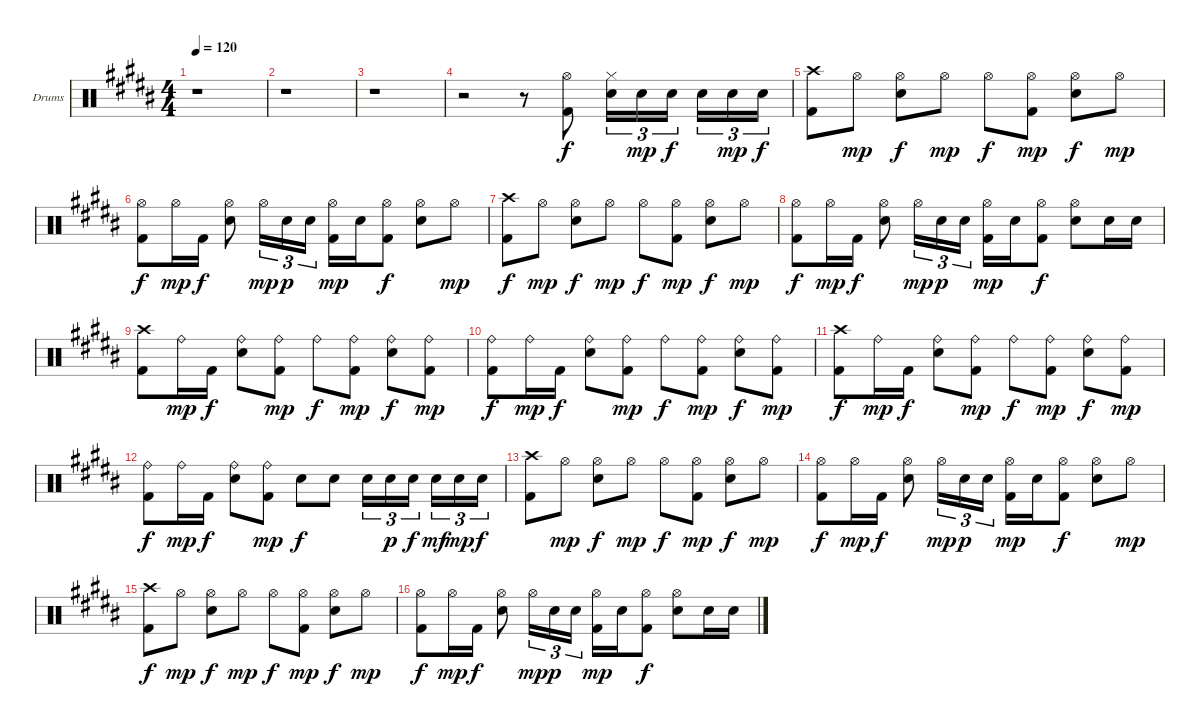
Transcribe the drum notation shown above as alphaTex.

\bracketExtendMode groupsimilarinstruments
\firstSystemTrackNameOrientation horizontal
\otherSystemsTrackNameOrientation horizontal
\track ("Drumkit" "Drums") {instrument percussion}
\staff {score}
\articulation defaults
\ts (4 4)
\beaming (8 2 2 2 2)
\tempo 120
\clef neutral
\ks b
r.1{dy f} |
\ks g#minor
r.1 |
r.1 |
r.2 r.8 ("Hi-Hat (open)"{acc forcenatural} "Kick (hit) 2"{acc forcenatural}).8 ("Hi-Hat (closed)"{acc forcenatural} "Snare (hit) 2"{acc forcenatural}).16{tu (3 2)} "Snare (hit) 2"{acc forcenatural}.16{tu (3 2) dy mp} "Snare (hit) 2"{acc forcenatural}.16{tu (3 2) dy f} "Snare (hit) 2"{acc forcenatural}.16{tu (3 2)} "Snare (hit) 2"{acc forcenatural}.16{tu (3 2) dy mp} "Snare (hit) 2"{acc forcenatural}.16{tu (3 2) dy f} |
("Crash high (hit)"{acc forcenatural} "Kick (hit) 2"{acc forcenatural}).8 "Hi-Hat (open)"{acc forcenatural}.8{dy mp} ("Hi-Hat (open)"{acc forcenatural} "Snare (hit) 2"{acc forcenatural}).8{dy f} "Hi-Hat (open)"{acc forcenatural}.8{dy mp} "Hi-Hat (open)"{acc forcenatural}.8{dy f} ("Hi-Hat (open)"{acc forcenatural} "Kick (hit) 2"{acc forcenatural}).8{dy mp} ("Hi-Hat (open)"{acc forcenatural} "Snare (hit) 2"{acc forcenatural}).8{dy f} "Hi-Hat (open)"{acc forcenatural}.8{dy mp} |
("Hi-Hat (open)"{acc forcenatural} "Kick (hit) 2"{acc forcenatural}).8{dy f} "Hi-Hat (open)"{acc forcenatural}.16{dy mp} "Kick (hit) 2"{acc forcenatural}.16{dy f} ("Hi-Hat (open)"{acc forcenatural} "Snare (hit) 2"{acc forcenatural}).8 "Hi-Hat (open)"{acc forcenatural}.16{tu (3 2) dy mp} "Snare (hit) 2"{acc forcenatural}.16{tu (3 2) dy p} "Snare (hit) 2"{acc forcenatural}.16{tu (3 2)} ("Hi-Hat (open)"{acc forcenatural} "Kick (hit) 2"{acc forcenatural}).16{dy mp} "Snare (hit) 2"{acc forcenatural}.16 ("Hi-Hat (open)"{acc forcenatural} "Kick (hit) 2"{acc forcenatural}).8{dy f} ("Hi-Hat (open)"{acc forcenatural} "Snare (hit) 2"{acc forcenatural}).8 "Hi-Hat (open)"{acc forcenatural}.8{dy mp} |
("Crash high (hit)"{acc forcenatural} "Kick (hit) 2"{acc forcenatural}).8{dy f} "Hi-Hat (open)"{acc forcenatural}.8{dy mp} ("Hi-Hat (open)"{acc forcenatural} "Snare (hit) 2"{acc forcenatural}).8{dy f} "Hi-Hat (open)"{acc forcenatural}.8{dy mp} "Hi-Hat (open)"{acc forcenatural}.8{dy f} ("Hi-Hat (open)"{acc forcenatural} "Kick (hit) 2"{acc forcenatural}).8{dy mp} ("Hi-Hat (open)"{acc forcenatural} "Snare (hit) 2"{acc forcenatural}).8{dy f} "Hi-Hat (open)"{acc forcenatural}.8{dy mp} |
("Hi-Hat (open)"{acc forcenatural} "Kick (hit) 2"{acc forcenatural}).8{dy f} "Hi-Hat (open)"{acc forcenatural}.16{dy mp} "Kick (hit) 2"{acc forcenatural}.16{dy f} ("Hi-Hat (open)"{acc forcenatural} "Snare (hit) 2"{acc forcenatural}).8 "Hi-Hat (open)"{acc forcenatural}.16{tu (3 2) dy mp} "Snare (hit) 2"{acc forcenatural}.16{tu (3 2) dy p} "Snare (hit) 2"{acc forcenatural}.16{tu (3 2)} ("Hi-Hat (open)"{acc forcenatural} "Kick (hit) 2"{acc forcenatural}).16{dy mp} "Snare (hit) 2"{acc forcenatural}.16 ("Hi-Hat (open)"{acc forcenatural} "Kick (hit) 2"{acc forcenatural}).8{dy f} ("Hi-Hat (open)"{acc forcenatural} "Snare (hit) 2"{acc forcenatural}).8 "Snare (hit) 2"{acc forcenatural}.16 "Snare (hit) 2"{acc forcenatural}.16 |
("Crash high (hit)"{acc forcenatural} "Kick (hit) 2"{acc forcenatural}).8 "Ride (bell)"{acc forcenatural}.16{dy mp} "Kick (hit) 2"{acc forcenatural}.16{dy f} ("Ride (bell)"{acc forcenatural} "Snare (hit) 2"{acc forcenatural}).8 ("Ride (bell)"{acc forcenatural} "Kick (hit) 2"{acc forcenatural}).8{dy mp} "Ride (bell)"{acc forcenatural}.8{dy f} ("Ride (bell)"{acc forcenatural} "Kick (hit) 2"{acc forcenatural}).8{dy mp} ("Ride (bell)"{acc forcenatural} "Snare (hit) 2"{acc forcenatural}).8{dy f} ("Ride (bell)"{acc forcenatural} "Kick (hit) 2"{acc forcenatural}).8{dy mp} |
("Ride (bell)"{acc forcenatural} "Kick (hit) 2"{acc forcenatural}).8{dy f} "Ride (bell)"{acc forcenatural}.16{dy mp} "Kick (hit) 2"{acc forcenatural}.16{dy f} ("Ride (bell)"{acc forcenatural} "Snare (hit) 2"{acc forcenatural}).8 ("Ride (bell)"{acc forcenatural} "Kick (hit) 2"{acc forcenatural}).8{dy mp} "Ride (bell)"{acc forcenatural}.8{dy f} ("Ride (bell)"{acc forcenatural} "Kick (hit) 2"{acc forcenatural}).8{dy mp} ("Ride (bell)"{acc forcenatural} "Snare (hit) 2"{acc forcenatural}).8{dy f} ("Ride (bell)"{acc forcenatural} "Kick (hit) 2"{acc forcenatural}).8{dy mp} |
("Crash high (hit)"{acc forcenatural} "Kick (hit) 2"{acc forcenatural}).8{dy f} "Ride (bell)"{acc forcenatural}.16{dy mp} "Kick (hit) 2"{acc forcenatural}.16{dy f} ("Ride (bell)"{acc forcenatural} "Snare (hit) 2"{acc forcenatural}).8 ("Ride (bell)"{acc forcenatural} "Kick (hit) 2"{acc forcenatural}).8{dy mp} "Ride (bell)"{acc forcenatural}.8{dy f} ("Ride (bell)"{acc forcenatural} "Kick (hit) 2"{acc forcenatural}).8{dy mp} ("Ride (bell)"{acc forcenatural} "Snare (hit) 2"{acc forcenatural}).8{dy f} ("Ride (bell)"{acc forcenatural} "Kick (hit) 2"{acc forcenatural}).8{dy mp} |
("Ride (bell)"{acc forcenatural} "Kick (hit) 2"{acc forcenatural}).8{dy f} "Ride (bell)"{acc forcenatural}.16{dy mp} "Kick (hit) 2"{acc forcenatural}.16{dy f} ("Ride (bell)"{acc forcenatural} "Snare (hit) 2"{acc forcenatural}).8 ("Ride (bell)"{acc forcenatural} "Kick (hit) 2"{acc forcenatural}).8{dy mp} "Snare (hit) 2"{acc forcenatural}.8{dy f} "Snare (hit) 2"{acc forcenatural}.8 "Snare (hit) 2"{acc forcenatural}.16{tu (3 2)} "Snare (hit) 2"{acc forcenatural}.16{tu (3 2) dy p} "Snare (hit) 2"{acc forcenatural}.16{tu (3 2) dy f} "Snare (hit) 2"{acc forcenatural}.16{tu (3 2) dy mf} "Snare (hit) 2"{acc forcenatural}.16{tu (3 2) dy mp} "Snare (hit) 2"{acc forcenatural}.16{tu (3 2) dy f} |
("Crash high (hit)"{acc forcenatural} "Kick (hit) 2"{acc forcenatural}).8 "Hi-Hat (open)"{acc forcenatural}.8{dy mp} ("Hi-Hat (open)"{acc forcenatural} "Snare (hit) 2"{acc forcenatural}).8{dy f} "Hi-Hat (open)"{acc forcenatural}.8{dy mp} "Hi-Hat (open)"{acc forcenatural}.8{dy f} ("Hi-Hat (open)"{acc forcenatural} "Kick (hit) 2"{acc forcenatural}).8{dy mp} ("Hi-Hat (open)"{acc forcenatural} "Snare (hit) 2"{acc forcenatural}).8{dy f} "Hi-Hat (open)"{acc forcenatural}.8{dy mp} |
("Hi-Hat (open)"{acc forcenatural} "Kick (hit) 2"{acc forcenatural}).8{dy f} "Hi-Hat (open)"{acc forcenatural}.16{dy mp} "Kick (hit) 2"{acc forcenatural}.16{dy f} ("Hi-Hat (open)"{acc forcenatural} "Snare (hit) 2"{acc forcenatural}).8 "Hi-Hat (open)"{acc forcenatural}.16{tu (3 2) dy mp} "Snare (hit) 2"{acc forcenatural}.16{tu (3 2) dy p} "Snare (hit) 2"{acc forcenatural}.16{tu (3 2)} ("Hi-Hat (open)"{acc forcenatural} "Kick (hit) 2"{acc forcenatural}).16{dy mp} "Snare (hit) 2"{acc forcenatural}.16 ("Hi-Hat (open)"{acc forcenatural} "Kick (hit) 2"{acc forcenatural}).8{dy f} ("Hi-Hat (open)"{acc forcenatural} "Snare (hit) 2"{acc forcenatural}).8 "Hi-Hat (open)"{acc forcenatural}.8{dy mp} |
("Crash high (hit)"{acc forcenatural} "Kick (hit) 2"{acc forcenatural}).8{dy f} "Hi-Hat (open)"{acc forcenatural}.8{dy mp} ("Hi-Hat (open)"{acc forcenatural} "Snare (hit) 2"{acc forcenatural}).8{dy f} "Hi-Hat (open)"{acc forcenatural}.8{dy mp} "Hi-Hat (open)"{acc forcenatural}.8{dy f} ("Hi-Hat (open)"{acc forcenatural} "Kick (hit) 2"{acc forcenatural}).8{dy mp} ("Hi-Hat (open)"{acc forcenatural} "Snare (hit) 2"{acc forcenatural}).8{dy f} "Hi-Hat (open)"{acc forcenatural}.8{dy mp} |
("Hi-Hat (open)"{acc forcenatural} "Kick (hit) 2"{acc forcenatural}).8{dy f} "Hi-Hat (open)"{acc forcenatural}.16{dy mp} "Kick (hit) 2"{acc forcenatural}.16{dy f} ("Hi-Hat (open)"{acc forcenatural} "Snare (hit) 2"{acc forcenatural}).8 "Hi-Hat (open)"{acc forcenatural}.16{tu (3 2) dy mp} "Snare (hit) 2"{acc forcenatural}.16{tu (3 2) dy p} "Snare (hit) 2"{acc forcenatural}.16{tu (3 2)} ("Hi-Hat (open)"{acc forcenatural} "Kick (hit) 2"{acc forcenatural}).16{dy mp} "Snare (hit) 2"{acc forcenatural}.16 ("Hi-Hat (open)"{acc forcenatural} "Kick (hit) 2"{acc forcenatural}).8{dy f} ("Hi-Hat (open)"{acc forcenatural} "Snare (hit) 2"{acc forcenatural}).8 "Snare (hit) 2"{acc forcenatural}.16 "Snare (hit) 2"{acc forcenatural}.16
